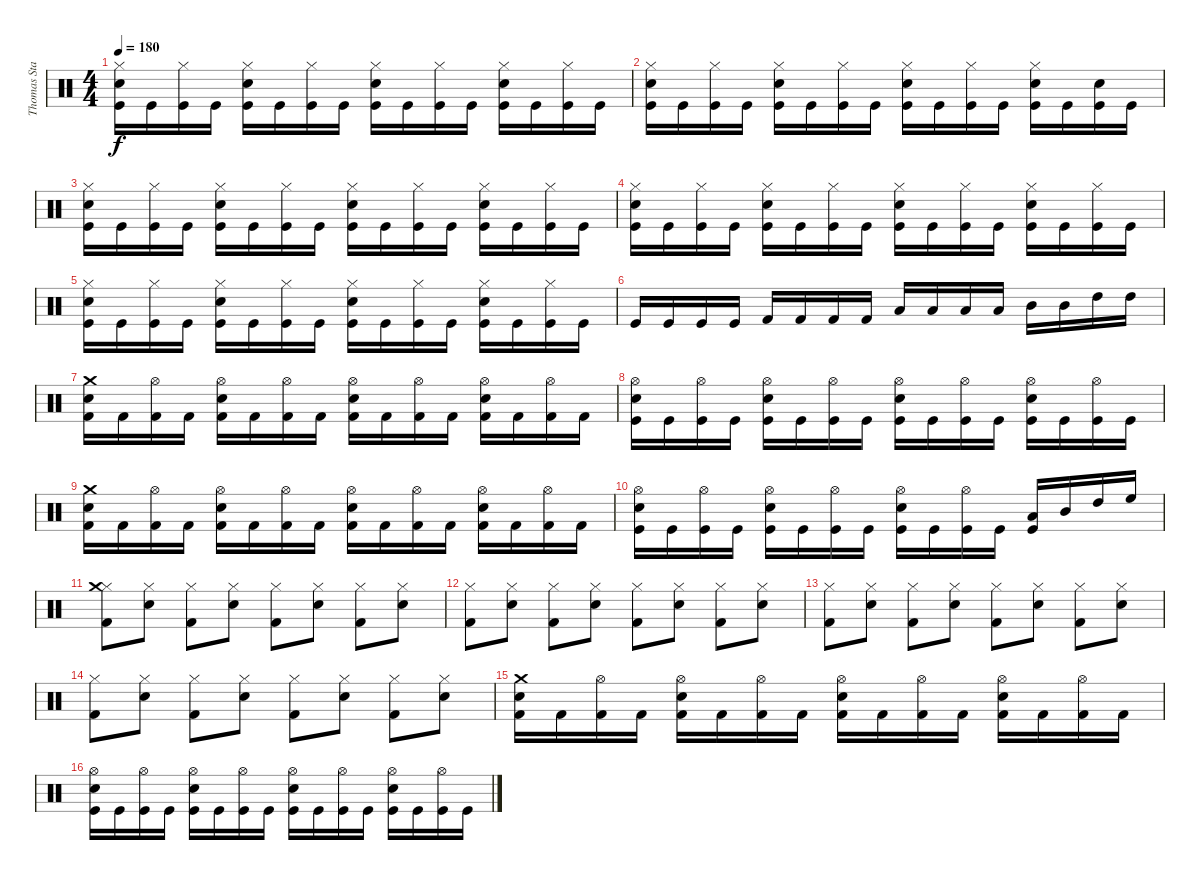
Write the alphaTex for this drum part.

\track ("Thomas Stauch" "Thomas Sta") {instrument percussion}
\staff {score}
\articulation defaults
\ts (4 4)
\tempo 180
\clef neutral
\ks c
("Kick (hit)" "Snare (hit) 2" "Hi-Hat (closed)").16{dy f} "Kick (hit)".16 ("Kick (hit)" "Hi-Hat (closed)").16 "Kick (hit)".16 ("Kick (hit)" "Snare (hit) 2" "Hi-Hat (closed)").16 "Kick (hit)".16 ("Kick (hit)" "Hi-Hat (closed)").16 "Kick (hit)".16 ("Kick (hit)" "Snare (hit) 2" "Hi-Hat (closed)").16 "Kick (hit)".16 ("Kick (hit)" "Hi-Hat (closed)").16 "Kick (hit)".16 ("Kick (hit)" "Snare (hit) 2" "Hi-Hat (closed)").16 "Kick (hit)".16 ("Kick (hit)" "Hi-Hat (closed)").16 "Kick (hit)".16 |
("Kick (hit)" "Snare (hit) 2" "Hi-Hat (closed)").16 "Kick (hit)".16 ("Kick (hit)" "Hi-Hat (closed)").16 "Kick (hit)".16 ("Kick (hit)" "Snare (hit) 2" "Hi-Hat (closed)").16 "Kick (hit)".16 ("Kick (hit)" "Hi-Hat (closed)").16 "Kick (hit)".16 ("Kick (hit)" "Snare (hit) 2" "Hi-Hat (closed)").16 "Kick (hit)".16 ("Kick (hit)" "Hi-Hat (closed)").16 "Kick (hit)".16 ("Kick (hit)" "Snare (hit) 2" "Hi-Hat (closed)").16 "Kick (hit)".16 ("Kick (hit)" "Snare (hit) 2").16 "Kick (hit)".16 |
("Kick (hit)" "Snare (hit) 2" "Hi-Hat (closed)").16 "Kick (hit)".16 ("Kick (hit)" "Hi-Hat (closed)").16 "Kick (hit)".16 ("Kick (hit)" "Snare (hit) 2" "Hi-Hat (closed)").16 "Kick (hit)".16 ("Kick (hit)" "Hi-Hat (closed)").16 "Kick (hit)".16 ("Kick (hit)" "Snare (hit) 2" "Hi-Hat (closed)").16 "Kick (hit)".16 ("Kick (hit)" "Hi-Hat (closed)").16 "Kick (hit)".16 ("Kick (hit)" "Snare (hit) 2" "Hi-Hat (closed)").16 "Kick (hit)".16 ("Kick (hit)" "Hi-Hat (closed)").16 "Kick (hit)".16 |
("Kick (hit)" "Snare (hit) 2" "Hi-Hat (closed)").16 "Kick (hit)".16 ("Kick (hit)" "Hi-Hat (closed)").16 "Kick (hit)".16 ("Kick (hit)" "Snare (hit) 2" "Hi-Hat (closed)").16 "Kick (hit)".16 ("Kick (hit)" "Hi-Hat (closed)").16 "Kick (hit)".16 ("Kick (hit)" "Snare (hit) 2" "Hi-Hat (closed)").16 "Kick (hit)".16 ("Kick (hit)" "Hi-Hat (closed)").16 "Kick (hit)".16 ("Kick (hit)" "Snare (hit) 2" "Hi-Hat (closed)").16 "Kick (hit)".16 ("Kick (hit)" "Hi-Hat (closed)").16 "Kick (hit)".16 |
("Kick (hit)" "Snare (hit) 2" "Hi-Hat (closed)").16 "Kick (hit)".16 ("Kick (hit)" "Hi-Hat (closed)").16 "Kick (hit)".16 ("Kick (hit)" "Snare (hit) 2" "Hi-Hat (closed)").16 "Kick (hit)".16 ("Kick (hit)" "Hi-Hat (closed)").16 "Kick (hit)".16 ("Kick (hit)" "Snare (hit) 2" "Hi-Hat (closed)").16 "Kick (hit)".16 ("Kick (hit)" "Hi-Hat (closed)").16 "Kick (hit)".16 ("Kick (hit)" "Snare (hit) 2" "Hi-Hat (closed)").16 "Kick (hit)".16 ("Kick (hit)" "Hi-Hat (closed)").16 "Kick (hit)".16 |
"Kick (hit)".16 "Kick (hit)".16 "Kick (hit)".16 "Kick (hit)".16 "Kick (hit) 2".16 "Kick (hit) 2".16 "Kick (hit) 2".16 "Kick (hit) 2".16 "Low Tom (hit)".16 "Low Tom (hit)".16 "Low Tom (hit)".16 "Low Tom (hit)".16 "Mid Tom (hit)".16 "Mid Tom (hit)".16 "High Tom (hit)".16 "High Tom (hit)".16 |
("Kick (hit) 2" "Snare (hit) 2" "Crash medium (hit)").16 "Kick (hit) 2".16 ("Kick (hit) 2" "Hi-Hat (open)").16 "Kick (hit) 2".16 ("Kick (hit) 2" "Snare (hit) 2" "Hi-Hat (open)").16 "Kick (hit) 2".16 ("Kick (hit) 2" "Hi-Hat (open)").16 "Kick (hit) 2".16 ("Kick (hit) 2" "Snare (hit) 2" "Hi-Hat (open)").16 "Kick (hit) 2".16 ("Kick (hit) 2" "Hi-Hat (open)").16 "Kick (hit) 2".16 ("Kick (hit) 2" "Snare (hit) 2" "Hi-Hat (open)").16 "Kick (hit) 2".16 ("Kick (hit) 2" "Hi-Hat (open)").16 "Kick (hit) 2".16 |
("Kick (hit)" "Snare (hit) 2" "Hi-Hat (open)").16 "Kick (hit)".16 ("Kick (hit)" "Hi-Hat (open)").16 "Kick (hit)".16 ("Kick (hit)" "Snare (hit) 2" "Hi-Hat (open)").16 "Kick (hit)".16 ("Kick (hit)" "Hi-Hat (open)").16 "Kick (hit)".16 ("Kick (hit)" "Snare (hit) 2" "Hi-Hat (open)").16 "Kick (hit)".16 ("Kick (hit)" "Hi-Hat (open)").16 "Kick (hit)".16 ("Kick (hit)" "Snare (hit) 2" "Hi-Hat (open)").16 "Kick (hit)".16 ("Kick (hit)" "Hi-Hat (open)").16 "Kick (hit)".16 |
("Kick (hit) 2" "Snare (hit) 2" "Crash medium (hit)").16 "Kick (hit) 2".16 ("Kick (hit) 2" "Hi-Hat (open)").16 "Kick (hit) 2".16 ("Kick (hit) 2" "Snare (hit) 2" "Hi-Hat (open)").16 "Kick (hit) 2".16 ("Kick (hit) 2" "Hi-Hat (open)").16 "Kick (hit) 2".16 ("Kick (hit) 2" "Snare (hit) 2" "Hi-Hat (open)").16 "Kick (hit) 2".16 ("Kick (hit) 2" "Hi-Hat (open)").16 "Kick (hit) 2".16 ("Kick (hit) 2" "Snare (hit) 2" "Hi-Hat (open)").16 "Kick (hit) 2".16 ("Kick (hit) 2" "Hi-Hat (open)").16 "Kick (hit) 2".16 |
("Kick (hit)" "Snare (hit) 2" "Hi-Hat (open)").16 "Kick (hit)".16 ("Kick (hit)" "Hi-Hat (open)").16 "Kick (hit)".16 ("Kick (hit)" "Snare (hit) 2" "Hi-Hat (open)").16 "Kick (hit)".16 ("Kick (hit)" "Hi-Hat (open)").16 "Kick (hit)".16 ("Kick (hit)" "Snare (hit) 2" "Hi-Hat (open)").16 "Kick (hit)".16 ("Kick (hit)" "Hi-Hat (open)").16 "Kick (hit)".16 ("Kick (hit)" "Low Tom (hit)").16 "Mid Tom (hit)".16 "High Tom (hit)".16 "High Floor Tom (hit)".16 |
("Kick (hit) 2" "Hi-Hat (closed)" "Crash medium (hit)").8 ("Snare (hit) 2" "Hi-Hat (closed)").8 ("Kick (hit) 2" "Hi-Hat (closed)").8 ("Snare (hit) 2" "Hi-Hat (closed)").8 ("Kick (hit) 2" "Hi-Hat (closed)").8 ("Snare (hit) 2" "Hi-Hat (closed)").8 ("Kick (hit) 2" "Hi-Hat (closed)").8 ("Snare (hit) 2" "Hi-Hat (closed)").8 |
("Kick (hit) 2" "Hi-Hat (closed)").8 ("Snare (hit) 2" "Hi-Hat (closed)").8 ("Kick (hit) 2" "Hi-Hat (closed)").8 ("Snare (hit) 2" "Hi-Hat (closed)").8 ("Kick (hit) 2" "Hi-Hat (closed)").8 ("Snare (hit) 2" "Hi-Hat (closed)").8 ("Kick (hit) 2" "Hi-Hat (closed)").8 ("Snare (hit) 2" "Hi-Hat (closed)").8 |
("Kick (hit) 2" "Hi-Hat (closed)").8 ("Snare (hit) 2" "Hi-Hat (closed)").8 ("Kick (hit) 2" "Hi-Hat (closed)").8 ("Snare (hit) 2" "Hi-Hat (closed)").8 ("Kick (hit) 2" "Hi-Hat (closed)").8 ("Snare (hit) 2" "Hi-Hat (closed)").8 ("Kick (hit) 2" "Hi-Hat (closed)").8 ("Snare (hit) 2" "Hi-Hat (closed)").8 |
("Kick (hit) 2" "Hi-Hat (closed)").8 ("Snare (hit) 2" "Hi-Hat (closed)").8 ("Kick (hit) 2" "Hi-Hat (closed)").8 ("Snare (hit) 2" "Hi-Hat (closed)").8 ("Kick (hit) 2" "Hi-Hat (closed)").8 ("Snare (hit) 2" "Hi-Hat (closed)").8 ("Kick (hit) 2" "Hi-Hat (closed)").8 ("Snare (hit) 2" "Hi-Hat (closed)").8 |
("Kick (hit) 2" "Snare (hit) 2" "Crash medium (hit)").16 "Kick (hit) 2".16 ("Kick (hit) 2" "Hi-Hat (open)").16 "Kick (hit) 2".16 ("Kick (hit) 2" "Snare (hit) 2" "Hi-Hat (open)").16 "Kick (hit) 2".16 ("Kick (hit) 2" "Hi-Hat (open)").16 "Kick (hit) 2".16 ("Kick (hit) 2" "Snare (hit) 2" "Hi-Hat (open)").16 "Kick (hit) 2".16 ("Kick (hit) 2" "Hi-Hat (open)").16 "Kick (hit) 2".16 ("Kick (hit) 2" "Snare (hit) 2" "Hi-Hat (open)").16 "Kick (hit) 2".16 ("Kick (hit) 2" "Hi-Hat (open)").16 "Kick (hit) 2".16 |
("Kick (hit)" "Snare (hit) 2" "Hi-Hat (open)").16 "Kick (hit)".16 ("Kick (hit)" "Hi-Hat (open)").16 "Kick (hit)".16 ("Kick (hit)" "Snare (hit) 2" "Hi-Hat (open)").16 "Kick (hit)".16 ("Kick (hit)" "Hi-Hat (open)").16 "Kick (hit)".16 ("Kick (hit)" "Snare (hit) 2" "Hi-Hat (open)").16 "Kick (hit)".16 ("Kick (hit)" "Hi-Hat (open)").16 "Kick (hit)".16 ("Kick (hit)" "Snare (hit) 2" "Hi-Hat (open)").16 "Kick (hit)".16 ("Kick (hit)" "Hi-Hat (open)").16 "Kick (hit)".16
